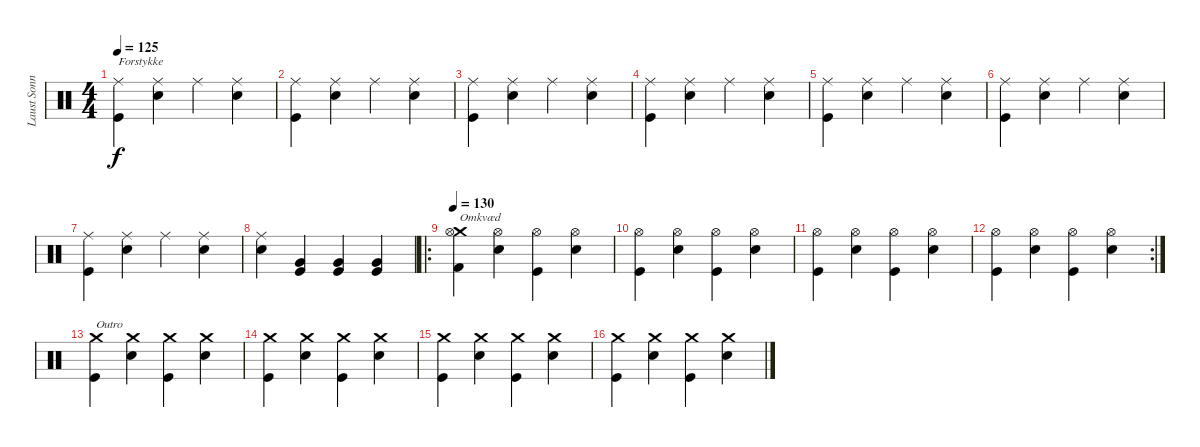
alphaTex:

\track ("Laust Sonne (Trommer)" "Laust Sonn") {instrument percussion}
\staff {score}
\articulation defaults
\ts (4 4)
\tempo 125
\clef neutral
\ks c
("Ride (middle)" "Kick (hit)").4{txt "Forstykke" dy f} ("Ride (middle)" "Snare (hit) 2").4 "Ride (middle)".4 ("Ride (middle)" "Snare (hit) 2").4 |
("Ride (middle)" "Kick (hit)").4 ("Ride (middle)" "Snare (hit) 2").4 "Ride (middle)".4 ("Ride (middle)" "Snare (hit) 2").4 |
("Ride (middle)" "Kick (hit)").4 ("Ride (middle)" "Snare (hit) 2").4 "Ride (middle)".4 ("Ride (middle)" "Snare (hit) 2").4 |
("Ride (middle)" "Kick (hit)").4 ("Ride (middle)" "Snare (hit) 2").4 "Ride (middle)".4 ("Ride (middle)" "Snare (hit) 2").4 |
("Ride (middle)" "Kick (hit)").4 ("Ride (middle)" "Snare (hit) 2").4 "Ride (middle)".4 ("Ride (middle)" "Snare (hit) 2").4 |
("Ride (middle)" "Kick (hit)").4 ("Ride (middle)" "Snare (hit) 2").4 "Ride (middle)".4 ("Ride (middle)" "Snare (hit) 2").4 |
("Ride (middle)" "Kick (hit)").4 ("Ride (middle)" "Snare (hit) 2").4 "Ride (middle)".4 ("Ride (middle)" "Snare (hit) 2").4 |
("Ride (middle)" "Snare (hit) 2").4 ("Very Low Tom (hit)" "Kick (hit)").4 ("Very Low Tom (hit)" "Kick (hit)").4 ("Very Low Tom (hit)" "Kick (hit)").4 |
\ro
\tempo 130
("Crash medium (hit)" "Hi-Hat (open)" "Kick (hit) 2").4{txt "Omkvæd"} ("Hi-Hat (open)" "Snare (hit) 2").4 ("Hi-Hat (open)" "Kick (hit)").4 ("Hi-Hat (open)" "Snare (hit) 2").4 |
("Hi-Hat (open)" "Kick (hit)").4 ("Hi-Hat (open)" "Snare (hit) 2").4 ("Hi-Hat (open)" "Kick (hit)").4 ("Hi-Hat (open)" "Snare (hit) 2").4 |
("Hi-Hat (open)" "Kick (hit)").4 ("Hi-Hat (open)" "Snare (hit) 2").4 ("Hi-Hat (open)" "Kick (hit)").4 ("Hi-Hat (open)" "Snare (hit) 2").4 |
\rc 2
("Hi-Hat (open)" "Kick (hit)").4 ("Hi-Hat (open)" "Snare (hit) 2").4 ("Hi-Hat (open)" "Kick (hit)").4 ("Hi-Hat (open)" "Snare (hit) 2").4 |
("Crash medium (hit)" "Kick (hit)").4{txt "Outro"} ("Crash medium (hit)" "Snare (hit) 2").4 ("Crash medium (hit)" "Kick (hit)").4 ("Crash medium (hit)" "Snare (hit) 2").4 |
("Crash medium (hit)" "Kick (hit)").4 ("Crash medium (hit)" "Snare (hit) 2").4 ("Crash medium (hit)" "Kick (hit)").4 ("Crash medium (hit)" "Snare (hit) 2").4 |
("Crash medium (hit)" "Kick (hit)").4 ("Crash medium (hit)" "Snare (hit) 2").4 ("Crash medium (hit)" "Kick (hit)").4 ("Crash medium (hit)" "Snare (hit) 2").4 |
("Crash medium (hit)" "Kick (hit)").4 ("Crash medium (hit)" "Snare (hit) 2").4 ("Crash medium (hit)" "Kick (hit)").4 ("Crash medium (hit)" "Snare (hit) 2").4
